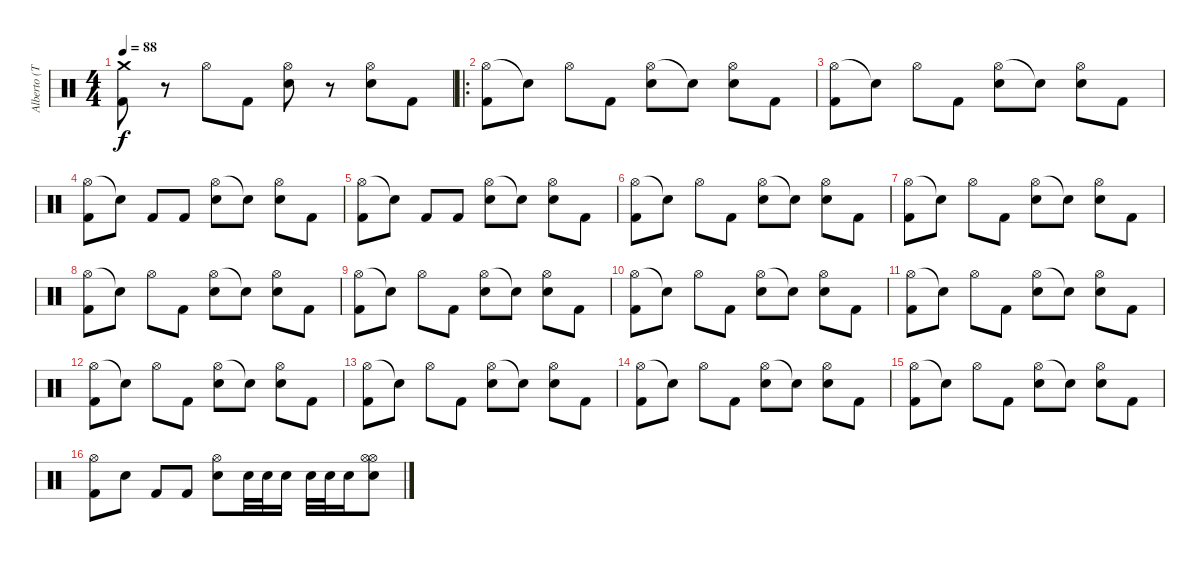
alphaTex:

\track ("Alberto (Toshi)" "Alberto (T") {instrument percussion}
\staff {score}
\articulation defaults
\ts (4 4)
\tempo 88
\clef neutral
\ks c
("Crash medium (hit)" "Kick (hit) 2").8{dy f} r.8 "Hi-Hat (open)".8 "Kick (hit) 2".8 ("Hi-Hat (open)" "Electric Snare (hit)").8 r.8 ("Hi-Hat (open)" "Electric Snare (hit)").8 "Kick (hit) 2".8 |
\ro
("Hi-Hat (open)" "Kick (hit) 2").8 "Snare (hit)"{t}.8 "Hi-Hat (open)".8 "Kick (hit) 2".8 ("Hi-Hat (open)" "Electric Snare (hit)").8 "Snare (hit)"{t}.8 ("Hi-Hat (open)" "Electric Snare (hit)").8 "Kick (hit) 2".8 |
("Hi-Hat (open)" "Kick (hit) 2").8 "Snare (hit)"{t}.8 "Hi-Hat (open)".8 "Kick (hit) 2".8 ("Hi-Hat (open)" "Electric Snare (hit)").8 "Snare (hit)"{t}.8 ("Hi-Hat (open)" "Electric Snare (hit)").8 "Kick (hit) 2".8 |
("Hi-Hat (open)" "Kick (hit) 2").8 "Snare (hit)"{t}.8 "Kick (hit) 2".8 "Kick (hit) 2".8 ("Hi-Hat (open)" "Electric Snare (hit)").8 "Snare (hit)"{t}.8 ("Hi-Hat (open)" "Electric Snare (hit)").8 "Kick (hit) 2".8 |
("Hi-Hat (open)" "Kick (hit) 2").8 "Snare (hit)"{t}.8 "Kick (hit) 2".8 "Kick (hit) 2".8 ("Hi-Hat (open)" "Electric Snare (hit)").8 "Snare (hit)"{t}.8 ("Hi-Hat (open)" "Electric Snare (hit)").8 "Kick (hit) 2".8 |
("Hi-Hat (open)" "Kick (hit) 2").8 "Snare (hit)"{t}.8 "Hi-Hat (open)".8 "Kick (hit) 2".8 ("Hi-Hat (open)" "Electric Snare (hit)").8 "Snare (hit)"{t}.8 ("Hi-Hat (open)" "Electric Snare (hit)").8 "Kick (hit) 2".8 |
("Hi-Hat (open)" "Kick (hit) 2").8 "Snare (hit)"{t}.8 "Hi-Hat (open)".8 "Kick (hit) 2".8 ("Hi-Hat (open)" "Electric Snare (hit)").8 "Snare (hit)"{t}.8 ("Hi-Hat (open)" "Electric Snare (hit)").8 "Kick (hit) 2".8 |
("Hi-Hat (open)" "Kick (hit) 2").8 "Snare (hit)"{t}.8 "Hi-Hat (open)".8 "Kick (hit) 2".8 ("Hi-Hat (open)" "Electric Snare (hit)").8 "Snare (hit)"{t}.8 ("Hi-Hat (open)" "Electric Snare (hit)").8 "Kick (hit) 2".8 |
("Hi-Hat (open)" "Kick (hit) 2").8 "Snare (hit)"{t}.8 "Hi-Hat (open)".8 "Kick (hit) 2".8 ("Hi-Hat (open)" "Electric Snare (hit)").8 "Snare (hit)"{t}.8 ("Hi-Hat (open)" "Electric Snare (hit)").8 "Kick (hit) 2".8 |
("Hi-Hat (open)" "Kick (hit) 2").8 "Snare (hit)"{t}.8 "Hi-Hat (open)".8 "Kick (hit) 2".8 ("Hi-Hat (open)" "Electric Snare (hit)").8 "Snare (hit)"{t}.8 ("Hi-Hat (open)" "Electric Snare (hit)").8 "Kick (hit) 2".8 |
("Hi-Hat (open)" "Kick (hit) 2").8 "Snare (hit)"{t}.8 "Hi-Hat (open)".8 "Kick (hit) 2".8 ("Hi-Hat (open)" "Electric Snare (hit)").8 "Snare (hit)"{t}.8 ("Hi-Hat (open)" "Electric Snare (hit)").8 "Kick (hit) 2".8 |
("Hi-Hat (open)" "Kick (hit) 2").8 "Snare (hit)"{t}.8 "Hi-Hat (open)".8 "Kick (hit) 2".8 ("Hi-Hat (open)" "Electric Snare (hit)").8 "Snare (hit)"{t}.8 ("Hi-Hat (open)" "Electric Snare (hit)").8 "Kick (hit) 2".8 |
("Hi-Hat (open)" "Kick (hit) 2").8 "Snare (hit)"{t}.8 "Hi-Hat (open)".8 "Kick (hit) 2".8 ("Hi-Hat (open)" "Electric Snare (hit)").8 "Snare (hit)"{t}.8 ("Hi-Hat (open)" "Electric Snare (hit)").8 "Kick (hit) 2".8 |
("Hi-Hat (open)" "Kick (hit) 2").8 "Snare (hit)"{t}.8 "Hi-Hat (open)".8 "Kick (hit) 2".8 ("Hi-Hat (open)" "Electric Snare (hit)").8 "Snare (hit)"{t}.8 ("Hi-Hat (open)" "Electric Snare (hit)").8 "Kick (hit) 2".8 |
("Hi-Hat (open)" "Kick (hit) 2").8 "Snare (hit)"{t}.8 "Hi-Hat (open)".8 "Kick (hit) 2".8 ("Hi-Hat (open)" "Electric Snare (hit)").8 "Snare (hit)"{t}.8 ("Hi-Hat (open)" "Electric Snare (hit)").8 "Kick (hit) 2".8 |
("Hi-Hat (open)" "Kick (hit) 2").8 "Electric Snare (hit)".8 "Kick (hit) 2".8 "Kick (hit) 2".8 ("Hi-Hat (open)" "Electric Snare (hit)").8 "Electric Snare (hit)".32 "Electric Snare (hit)".32 "Electric Snare (hit)".16 "Electric Snare (hit)".32 "Electric Snare (hit)".32 "Electric Snare (hit)".16 ("Hi-Hat (open)" "Hi-Hat (open)" "Electric Snare (hit)").8
